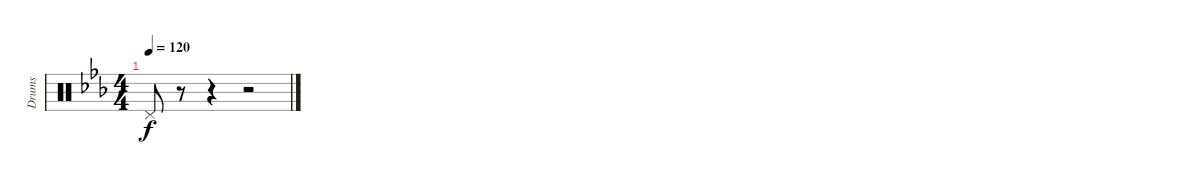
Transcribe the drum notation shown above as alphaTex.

\track ("Drums" "Drums") {instrument percussion}
\staff {score}
\articulation defaults
\ts (4 4)
\tempo 120
\clef neutral
\ks cminor "Pedal Hi-Hat (hit)".8{dy f}
r.8 r.4 r.2
